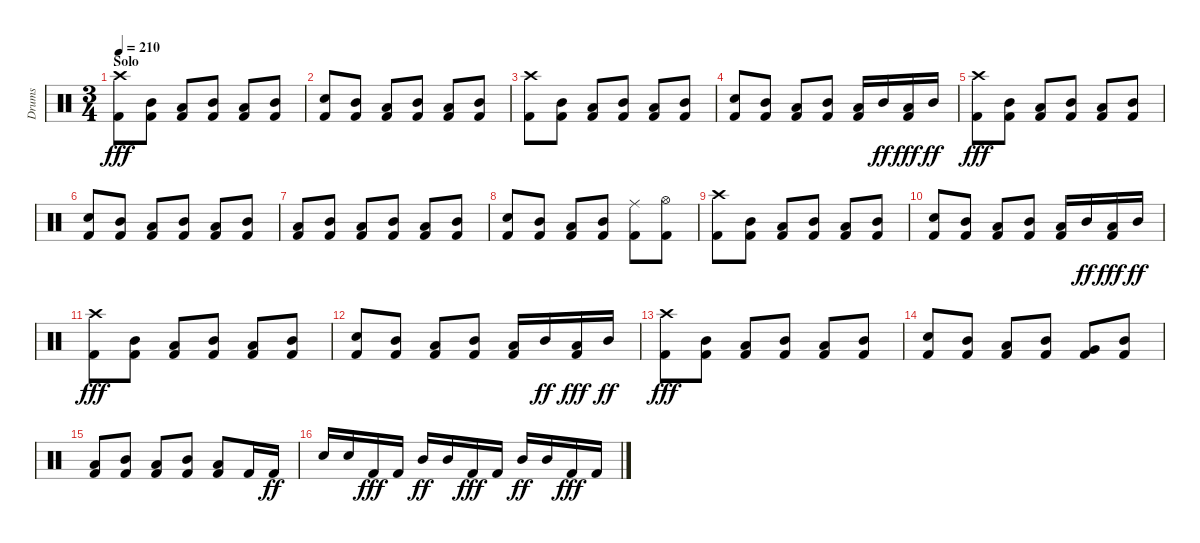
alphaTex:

\track ("Drums" "Drums") {instrument percussion}
\staff {score}
\articulation defaults
\ts (3 4)
\section ("" "Solo")
\tempo 210
\clef neutral
\ks c
("Crash high (hit)" "Kick (hit) 2").8{dy fff} ("Mid Tom (hit)" "Kick (hit) 2").8 ("Low Tom (hit)" "Kick (hit) 2").8 ("Mid Tom (hit)" "Kick (hit) 2").8 ("Low Tom (hit)" "Kick (hit) 2").8 ("Mid Tom (hit)" "Kick (hit) 2").8 |
("Snare (hit) 2" "Kick (hit) 2").8 ("Mid Tom (hit)" "Kick (hit) 2").8 ("Low Tom (hit)" "Kick (hit) 2").8 ("Mid Tom (hit)" "Kick (hit) 2").8 ("Low Tom (hit)" "Kick (hit) 2").8 ("Mid Tom (hit)" "Kick (hit) 2").8 |
("Crash high (hit)" "Kick (hit) 2").8 ("Mid Tom (hit)" "Kick (hit) 2").8 ("Low Tom (hit)" "Kick (hit) 2").8 ("Mid Tom (hit)" "Kick (hit) 2").8 ("Low Tom (hit)" "Kick (hit) 2").8 ("Mid Tom (hit)" "Kick (hit) 2").8 |
("Snare (hit) 2" "Kick (hit) 2").8 ("Mid Tom (hit)" "Kick (hit) 2").8 ("Low Tom (hit)" "Kick (hit) 2").8 ("Mid Tom (hit)" "Kick (hit) 2").8 ("Low Tom (hit)" "Kick (hit) 2").16 "Mid Tom (hit)".16{dy ff} ("Low Tom (hit)" "Kick (hit) 2").16{dy fff} "Mid Tom (hit)".16{dy ff} |
("Crash high (hit)" "Kick (hit) 2").8{dy fff} ("Mid Tom (hit)" "Kick (hit) 2").8 ("Low Tom (hit)" "Kick (hit) 2").8 ("Mid Tom (hit)" "Kick (hit) 2").8 ("Low Tom (hit)" "Kick (hit) 2").8 ("Mid Tom (hit)" "Kick (hit) 2").8 |
("Snare (hit) 2" "Kick (hit) 2").8 ("Mid Tom (hit)" "Kick (hit) 2").8 ("Low Tom (hit)" "Kick (hit) 2").8 ("Mid Tom (hit)" "Kick (hit) 2").8 ("Low Tom (hit)" "Kick (hit) 2").8 ("Mid Tom (hit)" "Kick (hit) 2").8 |
("Low Tom (hit)" "Kick (hit) 2").8 ("Mid Tom (hit)" "Kick (hit) 2").8 ("Low Tom (hit)" "Kick (hit) 2").8 ("Mid Tom (hit)" "Kick (hit) 2").8 ("Low Tom (hit)" "Kick (hit) 2").8 ("Mid Tom (hit)" "Kick (hit) 2").8 |
("Snare (hit) 2" "Kick (hit) 2").8 ("Mid Tom (hit)" "Kick (hit) 2").8 ("Low Tom (hit)" "Kick (hit) 2").8 ("Mid Tom (hit)" "Kick (hit) 2").8 ("Ride (middle)" "Kick (hit) 2").8 ("Hi-Hat (open)" "Kick (hit) 2").8 |
("Crash high (hit)" "Kick (hit) 2").8 ("Mid Tom (hit)" "Kick (hit) 2").8 ("Low Tom (hit)" "Kick (hit) 2").8 ("Mid Tom (hit)" "Kick (hit) 2").8 ("Low Tom (hit)" "Kick (hit) 2").8 ("Mid Tom (hit)" "Kick (hit) 2").8 |
("Snare (hit) 2" "Kick (hit) 2").8 ("Mid Tom (hit)" "Kick (hit) 2").8 ("Low Tom (hit)" "Kick (hit) 2").8 ("Mid Tom (hit)" "Kick (hit) 2").8 ("Low Tom (hit)" "Kick (hit) 2").16 "Mid Tom (hit)".16{dy ff} ("Low Tom (hit)" "Kick (hit) 2").16{dy fff} "Mid Tom (hit)".16{dy ff} |
("Crash high (hit)" "Kick (hit) 2").8{dy fff} ("Mid Tom (hit)" "Kick (hit) 2").8 ("Low Tom (hit)" "Kick (hit) 2").8 ("Mid Tom (hit)" "Kick (hit) 2").8 ("Low Tom (hit)" "Kick (hit) 2").8 ("Mid Tom (hit)" "Kick (hit) 2").8 |
("Snare (hit) 2" "Kick (hit) 2").8 ("Mid Tom (hit)" "Kick (hit) 2").8 ("Low Tom (hit)" "Kick (hit) 2").8 ("Mid Tom (hit)" "Kick (hit) 2").8 ("Low Tom (hit)" "Kick (hit) 2").16 "Mid Tom (hit)".16{dy ff} ("Low Tom (hit)" "Kick (hit) 2").16{dy fff} "Mid Tom (hit)".16{dy ff} |
("Crash high (hit)" "Kick (hit) 2").8{dy fff} ("Mid Tom (hit)" "Kick (hit) 2").8 ("Low Tom (hit)" "Kick (hit) 2").8 ("Mid Tom (hit)" "Kick (hit) 2").8 ("Low Tom (hit)" "Kick (hit) 2").8 ("Mid Tom (hit)" "Kick (hit) 2").8 |
("Snare (hit) 2" "Kick (hit) 2").8 ("Mid Tom (hit)" "Kick (hit) 2").8 ("Low Tom (hit)" "Kick (hit) 2").8 ("Mid Tom (hit)" "Kick (hit) 2").8 ("Very Low Tom (hit)" "Kick (hit) 2").8 ("Mid Tom (hit)" "Kick (hit) 2").8 |
("Low Tom (hit)" "Kick (hit) 2").8 ("Mid Tom (hit)" "Kick (hit) 2").8 ("Low Tom (hit)" "Kick (hit) 2").8 ("Mid Tom (hit)" "Kick (hit) 2").8 ("Low Tom (hit)" "Kick (hit) 2").8 "Kick (hit) 2".16 "Kick (hit) 2".16{dy ff} |
"Snare (hit) 2".16 "Snare (hit) 2".16 "Kick (hit) 2".16{dy fff} "Kick (hit) 2".16 "Mid Tom (hit)".16{dy ff} "Mid Tom (hit)".16 "Kick (hit) 2".16{dy fff} "Kick (hit) 2".16 "Mid Tom (hit)".16{dy ff} "Mid Tom (hit)".16 "Kick (hit) 2".16{dy fff} "Kick (hit) 2".16
